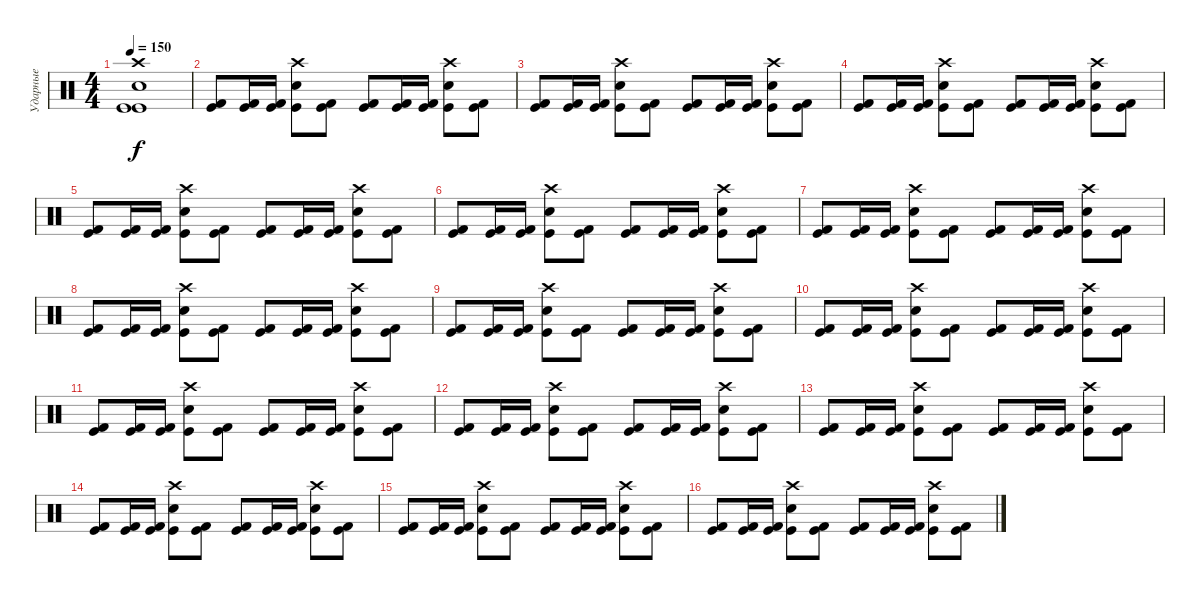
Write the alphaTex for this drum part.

\track ("Ударные" "Ударные") {instrument percussion}
\staff {score}
\articulation defaults
\ts (4 4)
\tempo 150
\clef neutral
\ks c
("Kick (hit)" "Kick (hit)" "Electric Snare (hit)" "Crash high (hit)").1{dy f} |
("Kick (hit)" "Kick (hit) 2").8 ("Kick (hit)" "Kick (hit) 2").16 ("Kick (hit)" "Kick (hit) 2").16 ("Kick (hit)" "Electric Snare (hit)" "Crash high (hit)").8 ("Kick (hit)" "Kick (hit) 2").8 ("Kick (hit)" "Kick (hit) 2").8 ("Kick (hit)" "Kick (hit) 2").16 ("Kick (hit)" "Kick (hit) 2").16 ("Kick (hit)" "Electric Snare (hit)" "Crash high (hit)").8 ("Kick (hit)" "Kick (hit) 2").8 |
("Kick (hit)" "Kick (hit) 2").8 ("Kick (hit)" "Kick (hit) 2").16 ("Kick (hit)" "Kick (hit) 2").16 ("Kick (hit)" "Electric Snare (hit)" "Crash high (hit)").8 ("Kick (hit)" "Kick (hit) 2").8 ("Kick (hit)" "Kick (hit) 2").8 ("Kick (hit)" "Kick (hit) 2").16 ("Kick (hit)" "Kick (hit) 2").16 ("Kick (hit)" "Electric Snare (hit)" "Crash high (hit)").8 ("Kick (hit)" "Kick (hit) 2").8 |
("Kick (hit)" "Kick (hit) 2").8 ("Kick (hit)" "Kick (hit) 2").16 ("Kick (hit)" "Kick (hit) 2").16 ("Kick (hit)" "Electric Snare (hit)" "Crash high (hit)").8 ("Kick (hit)" "Kick (hit) 2").8 ("Kick (hit)" "Kick (hit) 2").8 ("Kick (hit)" "Kick (hit) 2").16 ("Kick (hit)" "Kick (hit) 2").16 ("Kick (hit)" "Electric Snare (hit)" "Crash high (hit)").8 ("Kick (hit)" "Kick (hit) 2").8 |
("Kick (hit)" "Kick (hit) 2").8 ("Kick (hit)" "Kick (hit) 2").16 ("Kick (hit)" "Kick (hit) 2").16 ("Kick (hit)" "Electric Snare (hit)" "Crash high (hit)").8 ("Kick (hit)" "Kick (hit) 2").8 ("Kick (hit)" "Kick (hit) 2").8 ("Kick (hit)" "Kick (hit) 2").16 ("Kick (hit)" "Kick (hit) 2").16 ("Kick (hit)" "Electric Snare (hit)" "Crash high (hit)").8 ("Kick (hit)" "Kick (hit) 2").8 |
("Kick (hit)" "Kick (hit) 2").8 ("Kick (hit)" "Kick (hit) 2").16 ("Kick (hit)" "Kick (hit) 2").16 ("Kick (hit)" "Electric Snare (hit)" "Crash high (hit)").8 ("Kick (hit)" "Kick (hit) 2").8 ("Kick (hit)" "Kick (hit) 2").8 ("Kick (hit)" "Kick (hit) 2").16 ("Kick (hit)" "Kick (hit) 2").16 ("Kick (hit)" "Electric Snare (hit)" "Crash high (hit)").8 ("Kick (hit)" "Kick (hit) 2").8 |
("Kick (hit)" "Kick (hit) 2").8 ("Kick (hit)" "Kick (hit) 2").16 ("Kick (hit)" "Kick (hit) 2").16 ("Kick (hit)" "Electric Snare (hit)" "Crash high (hit)").8 ("Kick (hit)" "Kick (hit) 2").8 ("Kick (hit)" "Kick (hit) 2").8 ("Kick (hit)" "Kick (hit) 2").16 ("Kick (hit)" "Kick (hit) 2").16 ("Kick (hit)" "Electric Snare (hit)" "Crash high (hit)").8 ("Kick (hit)" "Kick (hit) 2").8 |
("Kick (hit)" "Kick (hit) 2").8 ("Kick (hit)" "Kick (hit) 2").16 ("Kick (hit)" "Kick (hit) 2").16 ("Kick (hit)" "Electric Snare (hit)" "Crash high (hit)").8 ("Kick (hit)" "Kick (hit) 2").8 ("Kick (hit)" "Kick (hit) 2").8 ("Kick (hit)" "Kick (hit) 2").16 ("Kick (hit)" "Kick (hit) 2").16 ("Kick (hit)" "Electric Snare (hit)" "Crash high (hit)").8 ("Kick (hit)" "Kick (hit) 2").8 |
("Kick (hit)" "Kick (hit) 2").8 ("Kick (hit)" "Kick (hit) 2").16 ("Kick (hit)" "Kick (hit) 2").16 ("Kick (hit)" "Electric Snare (hit)" "Crash high (hit)").8 ("Kick (hit)" "Kick (hit) 2").8 ("Kick (hit)" "Kick (hit) 2").8 ("Kick (hit)" "Kick (hit) 2").16 ("Kick (hit)" "Kick (hit) 2").16 ("Kick (hit)" "Electric Snare (hit)" "Crash high (hit)").8 ("Kick (hit)" "Kick (hit) 2").8 |
("Kick (hit)" "Kick (hit) 2").8 ("Kick (hit)" "Kick (hit) 2").16 ("Kick (hit)" "Kick (hit) 2").16 ("Kick (hit)" "Electric Snare (hit)" "Crash high (hit)").8 ("Kick (hit)" "Kick (hit) 2").8 ("Kick (hit)" "Kick (hit) 2").8 ("Kick (hit)" "Kick (hit) 2").16 ("Kick (hit)" "Kick (hit) 2").16 ("Kick (hit)" "Electric Snare (hit)" "Crash high (hit)").8 ("Kick (hit)" "Kick (hit) 2").8 |
("Kick (hit)" "Kick (hit) 2").8 ("Kick (hit)" "Kick (hit) 2").16 ("Kick (hit)" "Kick (hit) 2").16 ("Kick (hit)" "Electric Snare (hit)" "Crash high (hit)").8 ("Kick (hit)" "Kick (hit) 2").8 ("Kick (hit)" "Kick (hit) 2").8 ("Kick (hit)" "Kick (hit) 2").16 ("Kick (hit)" "Kick (hit) 2").16 ("Kick (hit)" "Electric Snare (hit)" "Crash high (hit)").8 ("Kick (hit)" "Kick (hit) 2").8 |
("Kick (hit)" "Kick (hit) 2").8 ("Kick (hit)" "Kick (hit) 2").16 ("Kick (hit)" "Kick (hit) 2").16 ("Kick (hit)" "Electric Snare (hit)" "Crash high (hit)").8 ("Kick (hit)" "Kick (hit) 2").8 ("Kick (hit)" "Kick (hit) 2").8 ("Kick (hit)" "Kick (hit) 2").16 ("Kick (hit)" "Kick (hit) 2").16 ("Kick (hit)" "Electric Snare (hit)" "Crash high (hit)").8 ("Kick (hit)" "Kick (hit) 2").8 |
("Kick (hit)" "Kick (hit) 2").8 ("Kick (hit)" "Kick (hit) 2").16 ("Kick (hit)" "Kick (hit) 2").16 ("Kick (hit)" "Electric Snare (hit)" "Crash high (hit)").8 ("Kick (hit)" "Kick (hit) 2").8 ("Kick (hit)" "Kick (hit) 2").8 ("Kick (hit)" "Kick (hit) 2").16 ("Kick (hit)" "Kick (hit) 2").16 ("Kick (hit)" "Electric Snare (hit)" "Crash high (hit)").8 ("Kick (hit)" "Kick (hit) 2").8 |
("Kick (hit)" "Kick (hit) 2").8 ("Kick (hit)" "Kick (hit) 2").16 ("Kick (hit)" "Kick (hit) 2").16 ("Kick (hit)" "Electric Snare (hit)" "Crash high (hit)").8 ("Kick (hit)" "Kick (hit) 2").8 ("Kick (hit)" "Kick (hit) 2").8 ("Kick (hit)" "Kick (hit) 2").16 ("Kick (hit)" "Kick (hit) 2").16 ("Kick (hit)" "Electric Snare (hit)" "Crash high (hit)").8 ("Kick (hit)" "Kick (hit) 2").8 |
("Kick (hit)" "Kick (hit) 2").8 ("Kick (hit)" "Kick (hit) 2").16 ("Kick (hit)" "Kick (hit) 2").16 ("Kick (hit)" "Electric Snare (hit)" "Crash high (hit)").8 ("Kick (hit)" "Kick (hit) 2").8 ("Kick (hit)" "Kick (hit) 2").8 ("Kick (hit)" "Kick (hit) 2").16 ("Kick (hit)" "Kick (hit) 2").16 ("Kick (hit)" "Electric Snare (hit)" "Crash high (hit)").8 ("Kick (hit)" "Kick (hit) 2").8 |
("Kick (hit)" "Kick (hit) 2").8 ("Kick (hit)" "Kick (hit) 2").16 ("Kick (hit)" "Kick (hit) 2").16 ("Kick (hit)" "Electric Snare (hit)" "Crash high (hit)").8 ("Kick (hit)" "Kick (hit) 2").8 ("Kick (hit)" "Kick (hit) 2").8 ("Kick (hit)" "Kick (hit) 2").16 ("Kick (hit)" "Kick (hit) 2").16 ("Kick (hit)" "Electric Snare (hit)" "Crash high (hit)").8 ("Kick (hit)" "Kick (hit) 2").8
